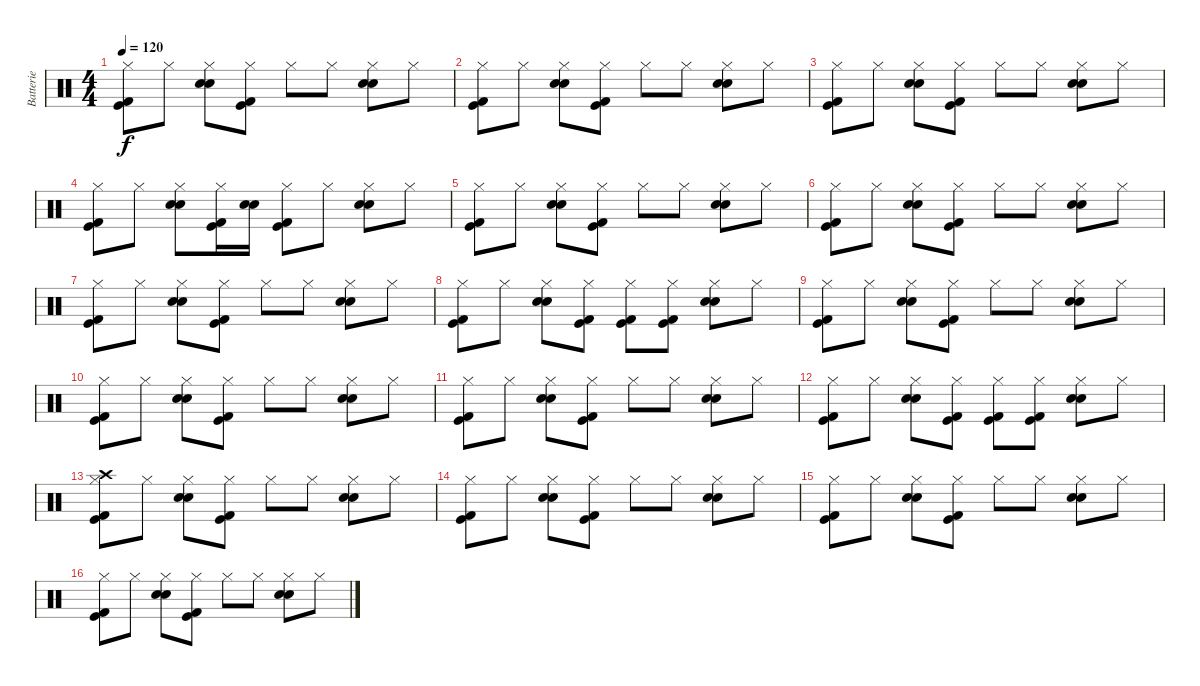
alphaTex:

\track ("Batterie" "Batterie") {instrument percussion}
\staff {score}
\articulation defaults
\ts (4 4)
\tempo 120
\clef neutral
\ks c
("Hi-Hat (closed)" "Kick (hit)" "Kick (hit) 2").8{dy f} "Hi-Hat (closed)".8 ("Hi-Hat (closed)" "Electric Snare (hit)" "Electric Snare (hit)").8 ("Hi-Hat (closed)" "Kick (hit)" "Kick (hit) 2").8 "Hi-Hat (closed)".8 "Hi-Hat (closed)".8 ("Hi-Hat (closed)" "Electric Snare (hit)" "Electric Snare (hit)").8 "Hi-Hat (closed)".8 |
("Hi-Hat (closed)" "Kick (hit)" "Kick (hit) 2").8 "Hi-Hat (closed)".8 ("Hi-Hat (closed)" "Electric Snare (hit)" "Electric Snare (hit)").8 ("Hi-Hat (closed)" "Kick (hit)" "Kick (hit) 2").8 "Hi-Hat (closed)".8 "Hi-Hat (closed)".8 ("Hi-Hat (closed)" "Electric Snare (hit)" "Electric Snare (hit)").8 "Hi-Hat (closed)".8 |
("Hi-Hat (closed)" "Kick (hit)" "Kick (hit) 2").8 "Hi-Hat (closed)".8 ("Hi-Hat (closed)" "Electric Snare (hit)" "Electric Snare (hit)").8 ("Hi-Hat (closed)" "Kick (hit)" "Kick (hit) 2").8 "Hi-Hat (closed)".8 "Hi-Hat (closed)".8 ("Hi-Hat (closed)" "Electric Snare (hit)" "Electric Snare (hit)").8 "Hi-Hat (closed)".8 |
("Hi-Hat (closed)" "Kick (hit)" "Kick (hit) 2").8 "Hi-Hat (closed)".8 ("Hi-Hat (closed)" "Electric Snare (hit)" "Electric Snare (hit)").8 ("Hi-Hat (closed)" "Kick (hit)" "Kick (hit) 2").16 ("Electric Snare (hit)" "Electric Snare (hit)").16 ("Hi-Hat (closed)" "Kick (hit)" "Kick (hit) 2").8 "Hi-Hat (closed)".8 ("Hi-Hat (closed)" "Electric Snare (hit)" "Electric Snare (hit)").8 "Hi-Hat (closed)".8 |
("Hi-Hat (closed)" "Kick (hit)" "Kick (hit) 2").8 "Hi-Hat (closed)".8 ("Hi-Hat (closed)" "Electric Snare (hit)" "Electric Snare (hit)").8 ("Hi-Hat (closed)" "Kick (hit)" "Kick (hit) 2").8 "Hi-Hat (closed)".8 "Hi-Hat (closed)".8 ("Hi-Hat (closed)" "Electric Snare (hit)" "Electric Snare (hit)").8 "Hi-Hat (closed)".8 |
("Hi-Hat (closed)" "Kick (hit)" "Kick (hit) 2").8 "Hi-Hat (closed)".8 ("Hi-Hat (closed)" "Electric Snare (hit)" "Electric Snare (hit)").8 ("Hi-Hat (closed)" "Kick (hit)" "Kick (hit) 2").8 "Hi-Hat (closed)".8 "Hi-Hat (closed)".8 ("Hi-Hat (closed)" "Electric Snare (hit)" "Electric Snare (hit)").8 "Hi-Hat (closed)".8 |
("Hi-Hat (closed)" "Kick (hit)" "Kick (hit) 2").8 "Hi-Hat (closed)".8 ("Hi-Hat (closed)" "Electric Snare (hit)" "Electric Snare (hit)").8 ("Hi-Hat (closed)" "Kick (hit)" "Kick (hit) 2").8 "Hi-Hat (closed)".8 "Hi-Hat (closed)".8 ("Hi-Hat (closed)" "Electric Snare (hit)" "Electric Snare (hit)").8 "Hi-Hat (closed)".8 |
("Hi-Hat (closed)" "Kick (hit)" "Kick (hit) 2").8 "Hi-Hat (closed)".8 ("Hi-Hat (closed)" "Electric Snare (hit)" "Electric Snare (hit)").8 ("Hi-Hat (closed)" "Kick (hit)" "Kick (hit) 2").8 ("Hi-Hat (closed)" "Kick (hit)" "Kick (hit) 2").8 ("Hi-Hat (closed)" "Kick (hit)" "Kick (hit) 2").8 ("Hi-Hat (closed)" "Electric Snare (hit)" "Electric Snare (hit)").8 "Hi-Hat (closed)".8 |
("Hi-Hat (closed)" "Kick (hit)" "Kick (hit) 2").8 "Hi-Hat (closed)".8 ("Hi-Hat (closed)" "Electric Snare (hit)" "Electric Snare (hit)").8 ("Hi-Hat (closed)" "Kick (hit)" "Kick (hit) 2").8 "Hi-Hat (closed)".8 "Hi-Hat (closed)".8 ("Hi-Hat (closed)" "Electric Snare (hit)" "Electric Snare (hit)").8 "Hi-Hat (closed)".8 |
("Hi-Hat (closed)" "Kick (hit)" "Kick (hit) 2").8 "Hi-Hat (closed)".8 ("Hi-Hat (closed)" "Electric Snare (hit)" "Electric Snare (hit)").8 ("Hi-Hat (closed)" "Kick (hit)" "Kick (hit) 2").8 "Hi-Hat (closed)".8 "Hi-Hat (closed)".8 ("Hi-Hat (closed)" "Electric Snare (hit)" "Electric Snare (hit)").8 "Hi-Hat (closed)".8 |
("Hi-Hat (closed)" "Kick (hit)" "Kick (hit) 2").8 "Hi-Hat (closed)".8 ("Hi-Hat (closed)" "Electric Snare (hit)" "Electric Snare (hit)").8 ("Hi-Hat (closed)" "Kick (hit)" "Kick (hit) 2").8 "Hi-Hat (closed)".8 "Hi-Hat (closed)".8 ("Hi-Hat (closed)" "Electric Snare (hit)" "Electric Snare (hit)").8 "Hi-Hat (closed)".8 |
("Hi-Hat (closed)" "Kick (hit)" "Kick (hit) 2").8 "Hi-Hat (closed)".8 ("Hi-Hat (closed)" "Electric Snare (hit)" "Electric Snare (hit)").8 ("Hi-Hat (closed)" "Kick (hit)" "Kick (hit) 2").8 ("Hi-Hat (closed)" "Kick (hit)" "Kick (hit) 2").8 ("Hi-Hat (closed)" "Kick (hit)" "Kick (hit) 2").8 ("Hi-Hat (closed)" "Electric Snare (hit)" "Electric Snare (hit)").8 "Hi-Hat (closed)".8 |
("Crash high (hit)" "Hi-Hat (closed)" "Kick (hit)" "Kick (hit) 2").8 "Hi-Hat (closed)".8 ("Hi-Hat (closed)" "Electric Snare (hit)" "Electric Snare (hit)").8 ("Hi-Hat (closed)" "Kick (hit)" "Kick (hit) 2").8 "Hi-Hat (closed)".8 "Hi-Hat (closed)".8 ("Hi-Hat (closed)" "Electric Snare (hit)" "Electric Snare (hit)").8 "Hi-Hat (closed)".8 |
("Hi-Hat (closed)" "Kick (hit)" "Kick (hit) 2").8 "Hi-Hat (closed)".8 ("Hi-Hat (closed)" "Electric Snare (hit)" "Electric Snare (hit)").8 ("Hi-Hat (closed)" "Kick (hit)" "Kick (hit) 2").8 "Hi-Hat (closed)".8 "Hi-Hat (closed)".8 ("Hi-Hat (closed)" "Electric Snare (hit)" "Electric Snare (hit)").8 "Hi-Hat (closed)".8 |
("Hi-Hat (closed)" "Kick (hit)" "Kick (hit) 2").8 "Hi-Hat (closed)".8 ("Hi-Hat (closed)" "Electric Snare (hit)" "Electric Snare (hit)").8 ("Hi-Hat (closed)" "Kick (hit)" "Kick (hit) 2").8 "Hi-Hat (closed)".8 "Hi-Hat (closed)".8 ("Hi-Hat (closed)" "Electric Snare (hit)" "Electric Snare (hit)").8 "Hi-Hat (closed)".8 |
("Hi-Hat (closed)" "Kick (hit)" "Kick (hit) 2").8 "Hi-Hat (closed)".8 ("Hi-Hat (closed)" "Electric Snare (hit)" "Electric Snare (hit)").8 ("Hi-Hat (closed)" "Kick (hit)" "Kick (hit) 2").8 "Hi-Hat (closed)".8 "Hi-Hat (closed)".8 ("Hi-Hat (closed)" "Electric Snare (hit)" "Electric Snare (hit)").8 "Hi-Hat (closed)".8
